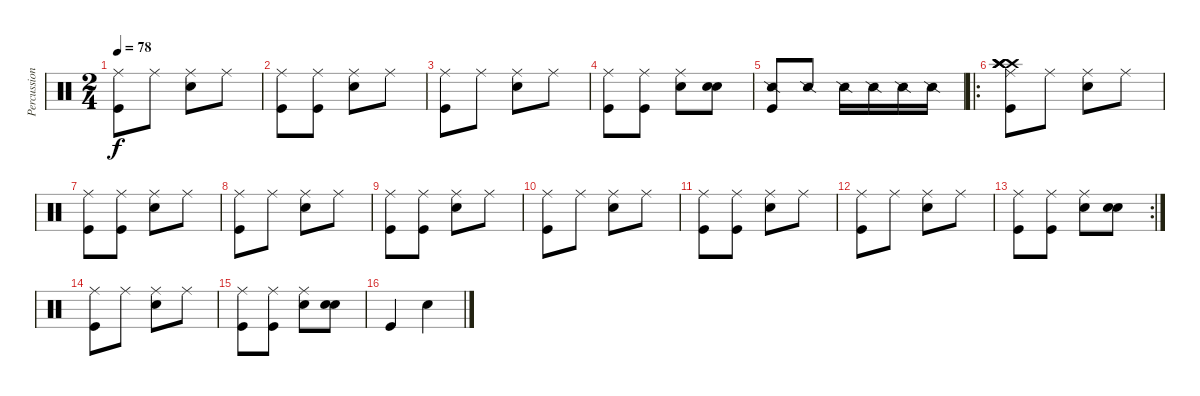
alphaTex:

\track ("Percussion" "Percussion") {instrument percussion}
\staff {score}
\articulation defaults
\ts (2 4)
\tempo 78
\clef neutral
\ks c
("Ride (middle)" "Kick (hit)").8{dy f} "Ride (middle)".8 ("Ride (middle)" "Metronome (bell)").8 "Ride (middle)".8 |
("Ride (middle)" "Kick (hit)").8 ("Ride (middle)" "Kick (hit)").8 ("Ride (middle)" "Metronome (bell)").8 "Ride (middle)".8 |
("Ride (middle)" "Kick (hit)").8 "Ride (middle)".8 ("Ride (middle)" "Metronome (bell)").8 "Ride (middle)".8 |
("Ride (middle)" "Kick (hit)").8 ("Ride (middle)" "Kick (hit)").8 ("Ride (middle)" "Metronome (bell)").8 ("Snare (hit)" "Metronome (bell)").8 |
("Kick (hit)" "Snare (side stick) 2").8 "Snare (side stick) 2".8 "Snare (side stick) 2".16 "Snare (side stick) 2".16 "Snare (side stick) 2".16 "Snare (side stick) 2".16 |
\ro
("Ride (middle)" "Kick (hit)" "Crash high (hit)" "Crash high (hit)" "Crash high (hit)" "Crash high (hit)").8 "Ride (middle)".8 ("Ride (middle)" "Metronome (bell)").8 "Ride (middle)".8 |
("Ride (middle)" "Kick (hit)").8 ("Ride (middle)" "Kick (hit)").8 ("Ride (middle)" "Metronome (bell)").8 "Ride (middle)".8 |
("Ride (middle)" "Kick (hit)").8 "Ride (middle)".8 ("Ride (middle)" "Metronome (bell)").8 "Ride (middle)".8 |
("Ride (middle)" "Kick (hit)").8 ("Ride (middle)" "Kick (hit)").8 ("Ride (middle)" "Metronome (bell)").8 "Ride (middle)".8 |
("Ride (middle)" "Kick (hit)").8 "Ride (middle)".8 ("Ride (middle)" "Metronome (bell)").8 "Ride (middle)".8 |
("Ride (middle)" "Kick (hit)").8 ("Ride (middle)" "Kick (hit)").8 ("Ride (middle)" "Metronome (bell)").8 "Ride (middle)".8 |
("Ride (middle)" "Kick (hit)").8 "Ride (middle)".8 ("Ride (middle)" "Metronome (bell)").8 "Ride (middle)".8 |
\rc 2
("Ride (middle)" "Kick (hit)").8 ("Ride (middle)" "Kick (hit)").8 ("Ride (middle)" "Metronome (bell)").8 ("Snare (hit)" "Metronome (bell)").8 |
("Ride (middle)" "Kick (hit)").8 "Ride (middle)".8 ("Ride (middle)" "Metronome (bell)").8 "Ride (middle)".8 |
("Ride (middle)" "Kick (hit)").8 ("Ride (middle)" "Kick (hit)").8 ("Ride (middle)" "Metronome (bell)").8 ("Snare (hit)" "Metronome (bell)").8 |
"Kick (hit)".4 "Snare (hit) 2".4
